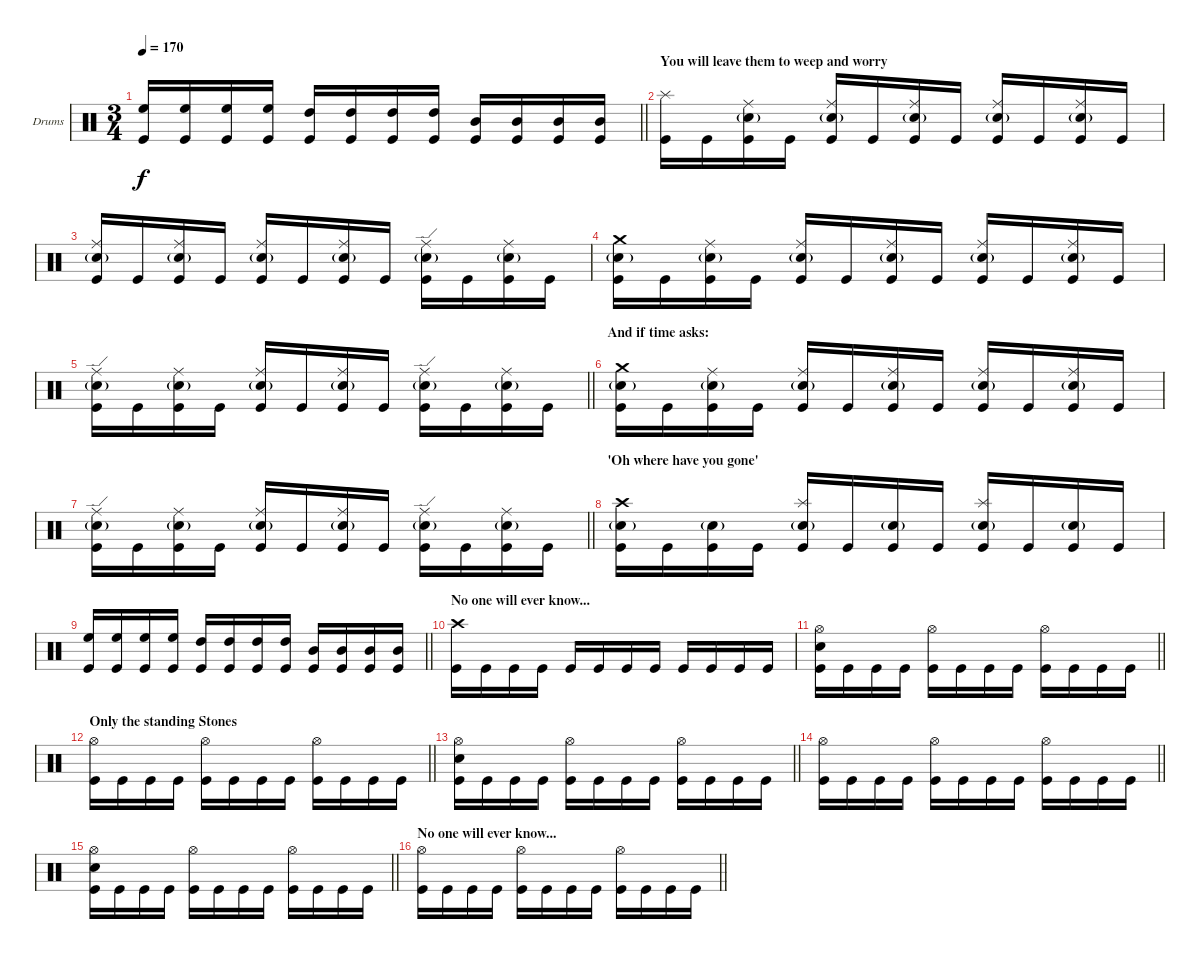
\bracketExtendMode groupsimilarinstruments
\firstSystemTrackNameOrientation horizontal
\otherSystemsTrackNameOrientation horizontal
\track ("Drumkit" "Drums") {instrument percussion}
\staff {score}
\articulation defaults
\ts (3 4)
\tempo 170
\clef neutral
\barLineRight lightlight
\ks c
("High Floor Tom (hit)" "Kick (hit)").16{dy f} ("High Floor Tom (hit)" "Kick (hit)").16 ("High Floor Tom (hit)" "Kick (hit)").16 ("High Floor Tom (hit)" "Kick (hit)").16 ("High Tom (hit)" "Kick (hit)").16 ("High Tom (hit)" "Kick (hit)").16 ("High Tom (hit)" "Kick (hit)").16 ("High Tom (hit)" "Kick (hit)").16 ("Mid Tom (hit)" "Kick (hit)").16 ("Mid Tom (hit)" "Kick (hit)").16 ("Mid Tom (hit)" "Kick (hit)").16 ("Mid Tom (hit)" "Kick (hit)").16 |
\section ("" "You will leave them to weep and worry")
("Splash (hit)" "Kick (hit)").16 "Kick (hit)".16 ("Ride (middle)" "Snare (hit) 2"{g} "Kick (hit)").16 "Kick (hit)".16 ("Ride (middle)" "Snare (hit) 2"{g} "Kick (hit)").16 "Kick (hit)".16 ("Ride (middle)" "Snare (hit) 2"{g} "Kick (hit)").16 "Kick (hit)".16 ("Ride (middle)" "Snare (hit) 2"{g} "Kick (hit)").16 "Kick (hit)".16 ("Ride (middle)" "Snare (hit) 2"{g} "Kick (hit)").16 "Kick (hit)".16 |
("Ride (middle)" "Snare (hit) 2"{g} "Kick (hit)").16 "Kick (hit)".16 ("Ride (middle)" "Snare (hit) 2"{g} "Kick (hit)").16 "Kick (hit)".16 ("Ride (middle)" "Snare (hit) 2"{g} "Kick (hit)").16 "Kick (hit)".16 ("Ride (middle)" "Snare (hit) 2"{g} "Kick (hit)").16 "Kick (hit)".16 ("Ride (edge)" "Snare (hit) 2"{g} "Kick (hit)").16 "Kick (hit)".16 ("Ride (middle)" "Snare (hit) 2"{g} "Kick (hit)").16 "Kick (hit)".16 |
("Crash medium (hit)" "Snare (hit) 2"{g} "Kick (hit)").16 "Kick (hit)".16 ("Ride (middle)" "Snare (hit) 2"{g} "Kick (hit)").16 "Kick (hit)".16 ("Ride (middle)" "Snare (hit) 2"{g} "Kick (hit)").16 "Kick (hit)".16 ("Ride (middle)" "Snare (hit) 2"{g} "Kick (hit)").16 "Kick (hit)".16 ("Ride (middle)" "Snare (hit) 2"{g} "Kick (hit)").16 "Kick (hit)".16 ("Ride (middle)" "Snare (hit) 2"{g} "Kick (hit)").16 "Kick (hit)".16 |
\barLineRight lightlight
("Ride (edge)" "Snare (hit) 2"{g} "Kick (hit)").16 "Kick (hit)".16 ("Ride (middle)" "Snare (hit) 2"{g} "Kick (hit)").16 "Kick (hit)".16 ("Ride (middle)" "Snare (hit) 2"{g} "Kick (hit)").16 "Kick (hit)".16 ("Ride (middle)" "Snare (hit) 2"{g} "Kick (hit)").16 "Kick (hit)".16 ("Ride (edge)" "Snare (hit) 2"{g} "Kick (hit)").16 "Kick (hit)".16 ("Ride (middle)" "Snare (hit) 2"{g} "Kick (hit)").16 "Kick (hit)".16 |
\section ("" "And if time asks:")
("Crash medium (hit)" "Snare (hit) 2"{g} "Kick (hit)").16 "Kick (hit)".16 ("Ride (middle)" "Snare (hit) 2"{g} "Kick (hit)").16 "Kick (hit)".16 ("Ride (middle)" "Snare (hit) 2"{g} "Kick (hit)").16 "Kick (hit)".16 ("Ride (middle)" "Snare (hit) 2"{g} "Kick (hit)").16 "Kick (hit)".16 ("Ride (middle)" "Snare (hit) 2"{g} "Kick (hit)").16 "Kick (hit)".16 ("Ride (middle)" "Snare (hit) 2"{g} "Kick (hit)").16 "Kick (hit)".16 |
\barLineRight lightlight
("Ride (edge)" "Snare (hit) 2"{g} "Kick (hit)").16 "Kick (hit)".16 ("Ride (middle)" "Snare (hit) 2"{g} "Kick (hit)").16 "Kick (hit)".16 ("Ride (middle)" "Snare (hit) 2"{g} "Kick (hit)").16 "Kick (hit)".16 ("Ride (middle)" "Snare (hit) 2"{g} "Kick (hit)").16 "Kick (hit)".16 ("Ride (edge)" "Snare (hit) 2"{g} "Kick (hit)").16 "Kick (hit)".16 ("Ride (middle)" "Snare (hit) 2"{g} "Kick (hit)").16 "Kick (hit)".16 |
\section ("" "'Oh where have you gone'")
("Crash high (hit)" "Snare (hit) 2"{g} "Kick (hit)").16 "Kick (hit)".16 ("Snare (hit) 2"{g} "Kick (hit)").16 "Kick (hit)".16 ("Splash (hit)" "Snare (hit) 2"{g} "Kick (hit)").16 "Kick (hit)".16 ("Snare (hit) 2"{g} "Kick (hit)").16 "Kick (hit)".16 ("Splash (hit)" "Snare (hit) 2"{g} "Kick (hit)").16 "Kick (hit)".16 ("Snare (hit) 2"{g} "Kick (hit)").16 "Kick (hit)".16 |
\barLineRight lightlight
("High Floor Tom (hit)" "Kick (hit)").16 ("High Floor Tom (hit)" "Kick (hit)").16 ("High Floor Tom (hit)" "Kick (hit)").16 ("High Floor Tom (hit)" "Kick (hit)").16 ("High Tom (hit)" "Kick (hit)").16 ("High Tom (hit)" "Kick (hit)").16 ("High Tom (hit)" "Kick (hit)").16 ("High Tom (hit)" "Kick (hit)").16 ("Mid Tom (hit)" "Kick (hit)").16 ("Mid Tom (hit)" "Kick (hit)").16 ("Mid Tom (hit)" "Kick (hit)").16 ("Mid Tom (hit)" "Kick (hit)").16 |
\section ("" "No one will ever know...")
("Crash high (hit)" "Kick (hit)").16 "Kick (hit)".16 "Kick (hit)".16 "Kick (hit)".16 "Kick (hit)".16 "Kick (hit)".16 "Kick (hit)".16 "Kick (hit)".16 "Kick (hit)".16 "Kick (hit)".16 "Kick (hit)".16 "Kick (hit)".16 |
\barLineRight lightlight
("Hi-Hat (open)" "Snare (hit) 2" "Kick (hit)").16 "Kick (hit)".16 "Kick (hit)".16 "Kick (hit)".16 ("Hi-Hat (open)" "Kick (hit)").16 "Kick (hit)".16 "Kick (hit)".16 "Kick (hit)".16 ("Hi-Hat (open)" "Kick (hit)").16 "Kick (hit)".16 "Kick (hit)".16 "Kick (hit)".16 |
\section ("" "Only the standing Stones")
\barLineRight lightlight
("Hi-Hat (open)" "Kick (hit)").16 "Kick (hit)".16 "Kick (hit)".16 "Kick (hit)".16 ("Hi-Hat (open)" "Kick (hit)").16 "Kick (hit)".16 "Kick (hit)".16 "Kick (hit)".16 ("Hi-Hat (open)" "Kick (hit)").16 "Kick (hit)".16 "Kick (hit)".16 "Kick (hit)".16 |
\barLineRight lightlight
("Hi-Hat (open)" "Snare (hit) 2" "Kick (hit)").16 "Kick (hit)".16 "Kick (hit)".16 "Kick (hit)".16 ("Hi-Hat (open)" "Kick (hit)").16 "Kick (hit)".16 "Kick (hit)".16 "Kick (hit)".16 ("Hi-Hat (open)" "Kick (hit)").16 "Kick (hit)".16 "Kick (hit)".16 "Kick (hit)".16 |
\barLineRight lightlight
("Hi-Hat (open)" "Kick (hit)").16 "Kick (hit)".16 "Kick (hit)".16 "Kick (hit)".16 ("Hi-Hat (open)" "Kick (hit)").16 "Kick (hit)".16 "Kick (hit)".16 "Kick (hit)".16 ("Hi-Hat (open)" "Kick (hit)").16 "Kick (hit)".16 "Kick (hit)".16 "Kick (hit)".16 |
\barLineRight lightlight
("Hi-Hat (open)" "Snare (hit) 2" "Kick (hit)").16 "Kick (hit)".16 "Kick (hit)".16 "Kick (hit)".16 ("Hi-Hat (open)" "Kick (hit)").16 "Kick (hit)".16 "Kick (hit)".16 "Kick (hit)".16 ("Hi-Hat (open)" "Kick (hit)").16 "Kick (hit)".16 "Kick (hit)".16 "Kick (hit)".16 |
\section ("" "No one will ever know...")
\barLineRight lightlight
("Hi-Hat (open)" "Kick (hit)").16 "Kick (hit)".16 "Kick (hit)".16 "Kick (hit)".16 ("Hi-Hat (open)" "Kick (hit)").16 "Kick (hit)".16 "Kick (hit)".16 "Kick (hit)".16 ("Hi-Hat (open)" "Kick (hit)").16 "Kick (hit)".16 "Kick (hit)".16 "Kick (hit)".16
